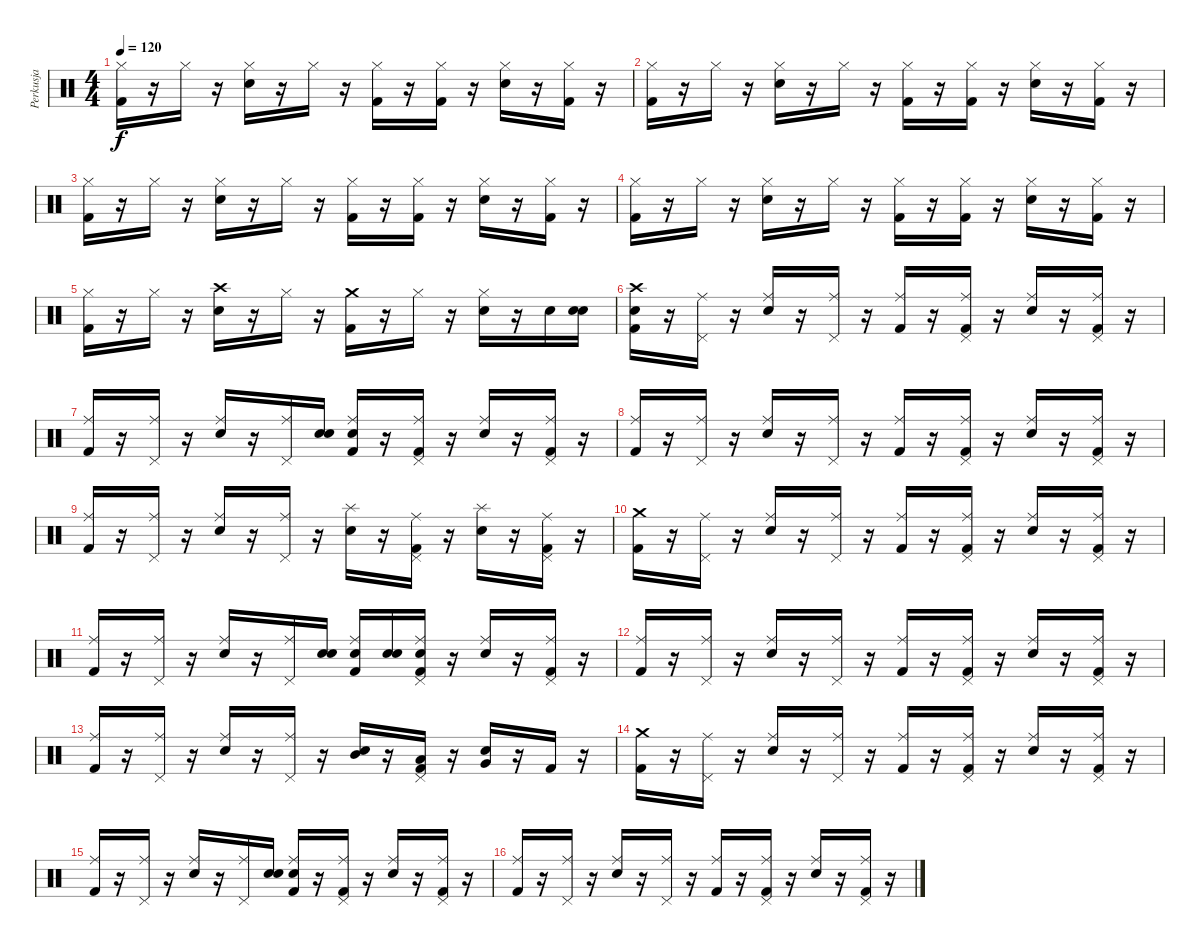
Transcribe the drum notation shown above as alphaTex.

\track ("Perkusja" "Perkusja") {instrument percussion}
\staff {score}
\articulation defaults
\ts (4 4)
\tempo 120
\clef neutral
\ks c
("Hi-Hat (closed)" "Kick (hit) 2").16{dy f} r.16 "Hi-Hat (closed)".16 r.16 ("Snare (hit) 2" "Hi-Hat (closed)").16 r.16 "Hi-Hat (closed)".16 r.16 ("Kick (hit) 2" "Hi-Hat (closed)").16 r.16 ("Hi-Hat (closed)" "Kick (hit) 2").16 r.16 ("Snare (hit) 2" "Hi-Hat (closed)").16 r.16 ("Kick (hit) 2" "Hi-Hat (closed)").16 r.16 |
("Kick (hit) 2" "Hi-Hat (closed)").16 r.16 "Hi-Hat (closed)".16 r.16 ("Snare (hit) 2" "Hi-Hat (closed)").16 r.16 "Hi-Hat (closed)".16 r.16 ("Hi-Hat (closed)" "Kick (hit) 2").16 r.16 ("Hi-Hat (closed)" "Kick (hit) 2").16 r.16 ("Snare (hit) 2" "Hi-Hat (closed)").16 r.16 ("Hi-Hat (closed)" "Kick (hit) 2").16 r.16 |
("Kick (hit) 2" "Hi-Hat (closed)").16 r.16 "Hi-Hat (closed)".16 r.16 ("Snare (hit) 2" "Hi-Hat (closed)").16 r.16 "Hi-Hat (closed)".16 r.16 ("Kick (hit) 2" "Hi-Hat (closed)").16 r.16 ("Hi-Hat (closed)" "Kick (hit) 2").16 r.16 ("Snare (hit) 2" "Hi-Hat (closed)").16 r.16 ("Kick (hit) 2" "Hi-Hat (closed)").16 r.16 |
("Kick (hit) 2" "Hi-Hat (closed)").16 r.16 "Hi-Hat (closed)".16 r.16 ("Snare (hit) 2" "Hi-Hat (closed)").16 r.16 "Hi-Hat (closed)".16 r.16 ("Kick (hit) 2" "Hi-Hat (closed)").16 r.16 ("Hi-Hat (closed)" "Kick (hit) 2").16 r.16 ("Snare (hit) 2" "Hi-Hat (closed)").16 r.16 ("Kick (hit) 2" "Hi-Hat (closed)").16 r.16 |
("Hi-Hat (closed)" "Kick (hit) 2").16 r.16 "Hi-Hat (closed)".16 r.16 ("Snare (hit) 2" "Crash high (hit)").16 r.16 "Hi-Hat (closed)".16 r.16 ("Kick (hit) 2" "Crash medium (hit)").16 r.16 "Hi-Hat (closed)".16 r.16 ("Hi-Hat (closed)" "Snare (hit) 2").16 r.16 "Snare (hit) 2".16 ("Snare (hit)" "Snare (hit) 2").16 |
("Snare (hit)" "Kick (hit) 2" "Crash high (hit)").16 r.16 ("Ride (middle)" "Pedal Hi-Hat (hit)").16 r.16 ("Ride (middle)" "Snare (hit) 2").16 r.16 ("Ride (middle)" "Pedal Hi-Hat (hit)").16 r.16 ("Kick (hit) 2" "Ride (middle)").16 r.16 ("Kick (hit) 2" "Pedal Hi-Hat (hit)" "Ride (middle)").16 r.16 ("Ride (middle)" "Snare (hit) 2").16 r.16 ("Kick (hit) 2" "Ride (middle)" "Pedal Hi-Hat (hit)").16 r.16 |
("Ride (middle)" "Kick (hit) 2").16 r.16 ("Pedal Hi-Hat (hit)" "Ride (middle)").16 r.16 ("Ride (middle)" "Snare (hit) 2").16 r.16 ("Pedal Hi-Hat (hit)" "Ride (middle)").16 ("Snare (hit)" "Snare (hit) 2").16 ("Snare (hit)" "Kick (hit) 2" "Ride (middle)").16 r.16 ("Ride (middle)" "Pedal Hi-Hat (hit)" "Kick (hit) 2").16 r.16 ("Snare (hit) 2" "Ride (middle)").16 r.16 ("Kick (hit) 2" "Ride (middle)" "Pedal Hi-Hat (hit)").16 r.16 |
("Kick (hit) 2" "Ride (middle)").16 r.16 ("Ride (middle)" "Pedal Hi-Hat (hit)").16 r.16 ("Snare (hit) 2" "Ride (middle)").16 r.16 ("Ride (middle)" "Pedal Hi-Hat (hit)").16 r.16 ("Ride (middle)" "Kick (hit) 2").16 r.16 ("Kick (hit) 2" "Ride (middle)" "Pedal Hi-Hat (hit)").16 r.16 ("Ride (middle)" "Snare (hit) 2").16 r.16 ("Ride (middle)" "Kick (hit) 2" "Pedal Hi-Hat (hit)").16 r.16 |
("Ride (middle)" "Kick (hit) 2").16 r.16 ("Pedal Hi-Hat (hit)" "Ride (middle)").16 r.16 ("Snare (hit) 2" "Ride (middle)").16 r.16 ("Pedal Hi-Hat (hit)" "Ride (middle)").16 r.16 ("Snare (hit) 2" "Splash (hit)").16 r.16 ("Pedal Hi-Hat (hit)" "Ride (middle)" "Kick (hit) 2").16 r.16 ("Snare (hit) 2" "Splash (hit)").16 r.16 ("Kick (hit) 2" "Ride (middle)" "Pedal Hi-Hat (hit)").16 r.16 |
("Kick (hit) 2" "Crash medium (hit)").16 r.16 ("Pedal Hi-Hat (hit)" "Ride (middle)").16 r.16 ("Snare (hit) 2" "Ride (middle)").16 r.16 ("Pedal Hi-Hat (hit)" "Ride (middle)").16 r.16 ("Ride (middle)" "Kick (hit) 2").16 r.16 ("Ride (middle)" "Pedal Hi-Hat (hit)" "Kick (hit) 2").16 r.16 ("Snare (hit) 2" "Ride (middle)").16 r.16 ("Ride (middle)" "Pedal Hi-Hat (hit)" "Kick (hit) 2").16 r.16 |
("Kick (hit) 2" "Ride (middle)").16 r.16 ("Pedal Hi-Hat (hit)" "Ride (middle)").16 r.16 ("Snare (hit) 2" "Ride (middle)").16 r.16 ("Pedal Hi-Hat (hit)" "Ride (middle)").16 ("Snare (hit)" "Snare (hit) 2").16 ("Snare (hit)" "Ride (middle)" "Kick (hit) 2").16 ("Snare (hit)" "Snare (hit) 2").16 ("Snare (hit)" "Ride (middle)" "Kick (hit) 2" "Pedal Hi-Hat (hit)").16 r.16 ("Snare (hit) 2" "Ride (middle)").16 r.16 ("Pedal Hi-Hat (hit)" "Ride (middle)" "Kick (hit) 2").16 r.16 |
("Kick (hit) 2" "Ride (middle)").16 r.16 ("Pedal Hi-Hat (hit)" "Ride (middle)").16 r.16 ("Ride (middle)" "Snare (hit) 2").16 r.16 ("Pedal Hi-Hat (hit)" "Ride (middle)").16 r.16 ("Kick (hit) 2" "Ride (middle)").16 r.16 ("Kick (hit) 2" "Ride (middle)" "Pedal Hi-Hat (hit)").16 r.16 ("Ride (middle)" "Snare (hit) 2").16 r.16 ("Kick (hit) 2" "Ride (middle)" "Pedal Hi-Hat (hit)").16 r.16 |
("Kick (hit) 2" "Ride (middle)").16 r.16 ("Ride (middle)" "Pedal Hi-Hat (hit)").16 r.16 ("Snare (hit) 2" "Ride (middle)").16 r.16 ("Ride (middle)" "Pedal Hi-Hat (hit)").16 r.16 ("Mid Tom (hit)" "Electric Snare (hit)").16 r.16 ("Pedal Hi-Hat (hit)" "Kick (hit) 2" "Low Tom (hit)").16 r.16 ("Very Low Tom (hit)" "Electric Snare (hit)").16 r.16 "Kick (hit) 2".16 r.16 |
("Kick (hit) 2" "Crash medium (hit)").16 r.16 ("Pedal Hi-Hat (hit)" "Ride (middle)").16 r.16 ("Snare (hit) 2" "Ride (middle)").16 r.16 ("Pedal Hi-Hat (hit)" "Ride (middle)").16 r.16 ("Kick (hit) 2" "Ride (middle)").16 r.16 ("Kick (hit) 2" "Ride (middle)" "Pedal Hi-Hat (hit)").16 r.16 ("Ride (middle)" "Snare (hit) 2").16 r.16 ("Kick (hit) 2" "Pedal Hi-Hat (hit)" "Ride (middle)").16 r.16 |
("Kick (hit) 2" "Ride (middle)").16 r.16 ("Ride (middle)" "Pedal Hi-Hat (hit)").16 r.16 ("Snare (hit) 2" "Ride (middle)").16 r.16 ("Pedal Hi-Hat (hit)" "Ride (middle)").16 ("Snare (hit)" "Snare (hit) 2").16 ("Snare (hit)" "Ride (middle)" "Kick (hit) 2").16 r.16 ("Ride (middle)" "Kick (hit) 2" "Pedal Hi-Hat (hit)").16 r.16 ("Ride (middle)" "Snare (hit) 2").16 r.16 ("Kick (hit) 2" "Ride (middle)" "Pedal Hi-Hat (hit)").16 r.16 |
("Ride (middle)" "Kick (hit) 2").16 r.16 ("Pedal Hi-Hat (hit)" "Ride (middle)").16 r.16 ("Ride (middle)" "Snare (hit) 2").16 r.16 ("Pedal Hi-Hat (hit)" "Ride (middle)").16 r.16 ("Ride (middle)" "Kick (hit) 2").16 r.16 ("Ride (middle)" "Kick (hit) 2" "Pedal Hi-Hat (hit)").16 r.16 ("Snare (hit) 2" "Ride (middle)").16 r.16 ("Pedal Hi-Hat (hit)" "Ride (middle)" "Kick (hit) 2").16 r.16
